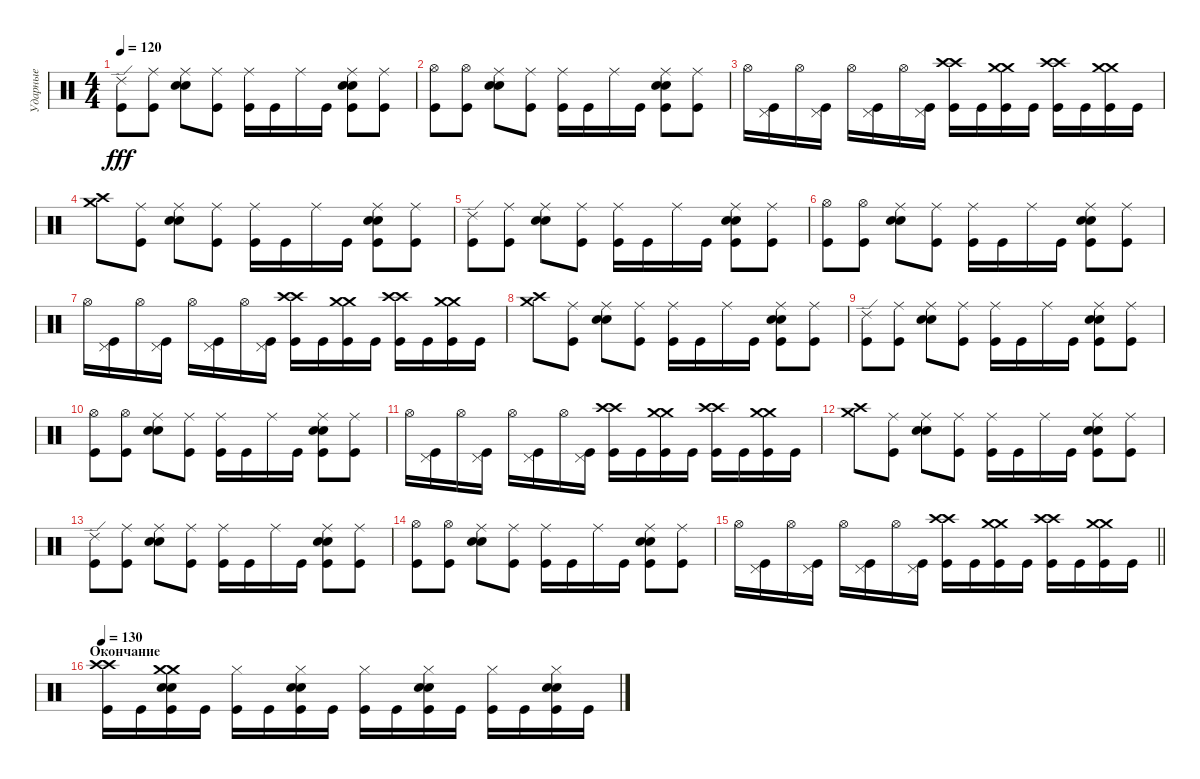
\track ("Ударные" "Ударные") {instrument percussion}
\staff {score}
\articulation defaults
\ts (4 4)
\tempo 120
\clef neutral
\ks c
("Ride (edge) 2" "Kick (hit)").8{dy fff} ("Ride (middle)" "Kick (hit)").8 ("Ride (middle)" "Snare (hit) 2" "Electric Snare (hit)").8 ("Ride (middle)" "Kick (hit)").8 ("Ride (middle)" "Kick (hit)").16 "Kick (hit)".16 "Ride (middle)".16 "Kick (hit)".16 ("Electric Snare (hit)" "Snare (hit) 2" "Ride (middle)" "Kick (hit)").8 ("Ride (middle)" "Kick (hit)").8 |
("Hi-Hat (open)" "Kick (hit)").8 ("Hi-Hat (open)" "Kick (hit)").8 ("Ride (middle)" "Snare (hit) 2" "Electric Snare (hit)").8 ("Ride (middle)" "Kick (hit)").8 ("Ride (middle)" "Kick (hit)").16 "Kick (hit)".16 "Ride (middle)".16 "Kick (hit)".16 ("Electric Snare (hit)" "Snare (hit) 2" "Ride (middle)" "Kick (hit)").8 ("Ride (middle)" "Kick (hit)").8 |
"Hi-Hat (open)".16 ("Kick (hit)" "Pedal Hi-Hat (hit)").16 "Hi-Hat (open)".16 ("Kick (hit)" "Pedal Hi-Hat (hit)").16 "Hi-Hat (open)".16 ("Pedal Hi-Hat (hit)" "Kick (hit)").16 "Hi-Hat (open)".16 ("Pedal Hi-Hat (hit)" "Kick (hit)").16 ("Kick (hit)" "Crash high (hit)" "Crash high (hit)").16 "Kick (hit)".16 ("Kick (hit)" "Crash medium (hit)" "Crash medium (hit)").16 "Kick (hit)".16 ("Kick (hit)" "Crash high (hit)" "Crash high (hit)").16 "Kick (hit)".16 ("Kick (hit)" "Crash medium (hit)" "Crash medium (hit)").16 "Kick (hit)".16 |
("Crash high (hit)" "Crash medium (hit)").8 ("Ride (middle)" "Kick (hit)").8 ("Ride (middle)" "Snare (hit) 2" "Electric Snare (hit)").8 ("Ride (middle)" "Kick (hit)").8 ("Ride (middle)" "Kick (hit)").16 "Kick (hit)".16 "Ride (middle)".16 "Kick (hit)".16 ("Electric Snare (hit)" "Snare (hit) 2" "Ride (middle)" "Kick (hit)").8 ("Ride (middle)" "Kick (hit)").8 |
("Ride (edge) 2" "Kick (hit)").8 ("Ride (middle)" "Kick (hit)").8 ("Ride (middle)" "Snare (hit) 2" "Electric Snare (hit)").8 ("Ride (middle)" "Kick (hit)").8 ("Ride (middle)" "Kick (hit)").16 "Kick (hit)".16 "Ride (middle)".16 "Kick (hit)".16 ("Electric Snare (hit)" "Snare (hit) 2" "Ride (middle)" "Kick (hit)").8 ("Ride (middle)" "Kick (hit)").8 |
("Hi-Hat (open)" "Kick (hit)").8 ("Hi-Hat (open)" "Kick (hit)").8 ("Ride (middle)" "Snare (hit) 2" "Electric Snare (hit)").8 ("Ride (middle)" "Kick (hit)").8 ("Ride (middle)" "Kick (hit)").16 "Kick (hit)".16 "Ride (middle)".16 "Kick (hit)".16 ("Electric Snare (hit)" "Snare (hit) 2" "Ride (middle)" "Kick (hit)").8 ("Ride (middle)" "Kick (hit)").8 |
"Hi-Hat (open)".16 ("Kick (hit)" "Pedal Hi-Hat (hit)").16 "Hi-Hat (open)".16 ("Kick (hit)" "Pedal Hi-Hat (hit)").16 "Hi-Hat (open)".16 ("Pedal Hi-Hat (hit)" "Kick (hit)").16 "Hi-Hat (open)".16 ("Pedal Hi-Hat (hit)" "Kick (hit)").16 ("Kick (hit)" "Crash high (hit)" "Crash high (hit)").16 "Kick (hit)".16 ("Kick (hit)" "Crash medium (hit)" "Crash medium (hit)").16 "Kick (hit)".16 ("Kick (hit)" "Crash high (hit)" "Crash high (hit)").16 "Kick (hit)".16 ("Kick (hit)" "Crash medium (hit)" "Crash medium (hit)").16 "Kick (hit)".16 |
("Crash high (hit)" "Crash medium (hit)").8 ("Ride (middle)" "Kick (hit)").8 ("Ride (middle)" "Snare (hit) 2" "Electric Snare (hit)").8 ("Ride (middle)" "Kick (hit)").8 ("Ride (middle)" "Kick (hit)").16 "Kick (hit)".16 "Ride (middle)".16 "Kick (hit)".16 ("Electric Snare (hit)" "Snare (hit) 2" "Ride (middle)" "Kick (hit)").8 ("Ride (middle)" "Kick (hit)").8 |
("Ride (edge) 2" "Kick (hit)").8 ("Ride (middle)" "Kick (hit)").8 ("Ride (middle)" "Snare (hit) 2" "Electric Snare (hit)").8 ("Ride (middle)" "Kick (hit)").8 ("Ride (middle)" "Kick (hit)").16 "Kick (hit)".16 "Ride (middle)".16 "Kick (hit)".16 ("Electric Snare (hit)" "Snare (hit) 2" "Ride (middle)" "Kick (hit)").8 ("Ride (middle)" "Kick (hit)").8 |
("Hi-Hat (open)" "Kick (hit)").8 ("Hi-Hat (open)" "Kick (hit)").8 ("Ride (middle)" "Snare (hit) 2" "Electric Snare (hit)").8 ("Ride (middle)" "Kick (hit)").8 ("Ride (middle)" "Kick (hit)").16 "Kick (hit)".16 "Ride (middle)".16 "Kick (hit)".16 ("Electric Snare (hit)" "Snare (hit) 2" "Ride (middle)" "Kick (hit)").8 ("Ride (middle)" "Kick (hit)").8 |
"Hi-Hat (open)".16 ("Kick (hit)" "Pedal Hi-Hat (hit)").16 "Hi-Hat (open)".16 ("Kick (hit)" "Pedal Hi-Hat (hit)").16 "Hi-Hat (open)".16 ("Pedal Hi-Hat (hit)" "Kick (hit)").16 "Hi-Hat (open)".16 ("Pedal Hi-Hat (hit)" "Kick (hit)").16 ("Kick (hit)" "Crash high (hit)" "Crash high (hit)").16 "Kick (hit)".16 ("Kick (hit)" "Crash medium (hit)" "Crash medium (hit)").16 "Kick (hit)".16 ("Kick (hit)" "Crash high (hit)" "Crash high (hit)").16 "Kick (hit)".16 ("Kick (hit)" "Crash medium (hit)" "Crash medium (hit)").16 "Kick (hit)".16 |
("Crash high (hit)" "Crash medium (hit)").8 ("Ride (middle)" "Kick (hit)").8 ("Ride (middle)" "Snare (hit) 2" "Electric Snare (hit)").8 ("Ride (middle)" "Kick (hit)").8 ("Ride (middle)" "Kick (hit)").16 "Kick (hit)".16 "Ride (middle)".16 "Kick (hit)".16 ("Electric Snare (hit)" "Snare (hit) 2" "Ride (middle)" "Kick (hit)").8 ("Ride (middle)" "Kick (hit)").8 |
("Ride (edge) 2" "Kick (hit)").8 ("Ride (middle)" "Kick (hit)").8 ("Ride (middle)" "Snare (hit) 2" "Electric Snare (hit)").8 ("Ride (middle)" "Kick (hit)").8 ("Ride (middle)" "Kick (hit)").16 "Kick (hit)".16 "Ride (middle)".16 "Kick (hit)".16 ("Electric Snare (hit)" "Snare (hit) 2" "Ride (middle)" "Kick (hit)").8 ("Ride (middle)" "Kick (hit)").8 |
("Hi-Hat (open)" "Kick (hit)").8 ("Hi-Hat (open)" "Kick (hit)").8 ("Ride (middle)" "Snare (hit) 2" "Electric Snare (hit)").8 ("Ride (middle)" "Kick (hit)").8 ("Ride (middle)" "Kick (hit)").16 "Kick (hit)".16 "Ride (middle)".16 "Kick (hit)".16 ("Electric Snare (hit)" "Snare (hit) 2" "Ride (middle)" "Kick (hit)").8 ("Ride (middle)" "Kick (hit)").8 |
\barLineRight lightlight "Hi-Hat (open)".16
("Kick (hit)" "Pedal Hi-Hat (hit)").16 "Hi-Hat (open)".16 ("Kick (hit)" "Pedal Hi-Hat (hit)").16 "Hi-Hat (open)".16 ("Pedal Hi-Hat (hit)" "Kick (hit)").16 "Hi-Hat (open)".16 ("Pedal Hi-Hat (hit)" "Kick (hit)").16 ("Kick (hit)" "Crash high (hit)" "Crash high (hit)").16 "Kick (hit)".16 ("Kick (hit)" "Crash medium (hit)" "Crash medium (hit)").16 "Kick (hit)".16 ("Kick (hit)" "Crash high (hit)" "Crash high (hit)").16 "Kick (hit)".16 ("Kick (hit)" "Crash medium (hit)" "Crash medium (hit)").16 "Kick (hit)".16 |
\section ("" "Окончание")
\tempo 130
("Crash high (hit)" "Crash high (hit)" "Kick (hit)").16 "Kick (hit)".16 ("Snare (hit) 2" "Snare (hit) 2" "Crash medium (hit)" "Crash medium (hit)" "Kick (hit)").16 "Kick (hit)".16 ("Hi-Hat (closed)" "Kick (hit)").16 "Kick (hit)".16 ("Hi-Hat (closed)" "Snare (hit) 2" "Snare (hit) 2" "Kick (hit)").16 "Kick (hit)".16 ("Hi-Hat (closed)" "Kick (hit)").16 "Kick (hit)".16 ("Hi-Hat (closed)" "Snare (hit) 2" "Snare (hit) 2" "Kick (hit)").16 "Kick (hit)".16 ("Hi-Hat (closed)" "Kick (hit)").16 "Kick (hit)".16 ("Hi-Hat (closed)" "Snare (hit) 2" "Snare (hit) 2" "Kick (hit)").16 "Kick (hit)".16
